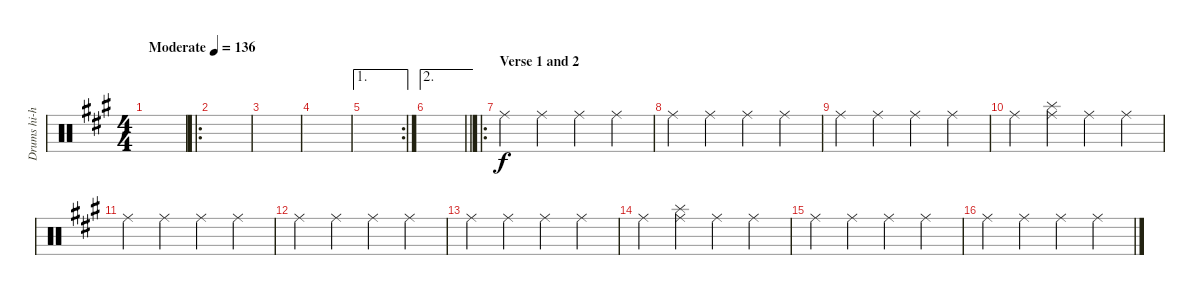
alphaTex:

\track ("Drums hi-hat" "Drums hi-h") {instrument percussion}
\staff {score}
\articulation defaults
\ts (4 4)
\tempo (136 "Moderate")
\clef neutral
\ks a
|
\ro
|
|
|
\ae 1
\rc 2
|
\ae 2
\barLineRight lightlight
|
\ro
\section ("" "Verse 1 and 2")
"Ride (middle)".4 "Ride (middle)".4 "Ride (middle)".4 "Ride (middle)".4 |
"Ride (middle)".4 "Ride (middle)".4 "Ride (middle)".4 "Ride (middle)".4 |
"Ride (middle)".4 "Ride (middle)".4 "Ride (middle)".4 "Ride (middle)".4 |
"Ride (middle)".4 ("Splash (hit)" "Ride (middle)").4 "Ride (middle)".4 "Ride (middle)".4 |
"Ride (middle)".4 "Ride (middle)".4 "Ride (middle)".4 "Ride (middle)".4 |
"Ride (middle)".4 "Ride (middle)".4 "Ride (middle)".4 "Ride (middle)".4 |
"Ride (middle)".4 "Ride (middle)".4 "Ride (middle)".4 "Ride (middle)".4 |
"Ride (middle)".4 ("Splash (hit)" "Ride (middle)").4 "Ride (middle)".4 "Ride (middle)".4 |
"Ride (middle)".4 "Ride (middle)".4 "Ride (middle)".4 "Ride (middle)".4 |
"Ride (middle)".4 "Ride (middle)".4 "Ride (middle)".4 "Ride (middle)".4
